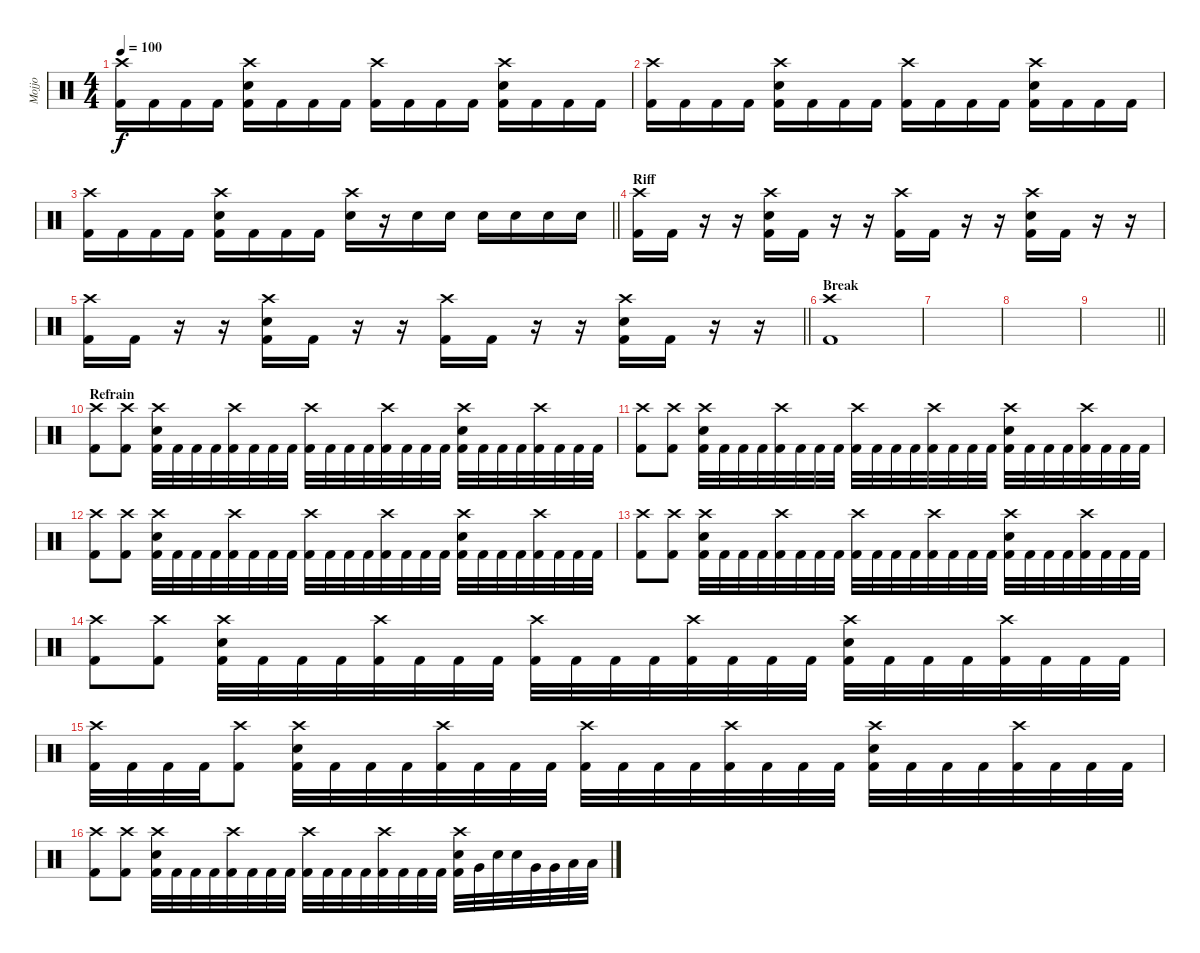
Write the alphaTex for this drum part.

\track ("Mojjo" "Mojjo") {instrument percussion}
\staff {score}
\articulation defaults
\ts (4 4)
\tempo 100
\clef neutral
\ks c
("Crash high (hit)" "Kick (hit) 2").16{dy f} "Kick (hit) 2".16 "Kick (hit) 2".16 "Kick (hit) 2".16 ("Crash high (hit)" "Electric Snare (hit)" "Kick (hit) 2").16 "Kick (hit) 2".16 "Kick (hit) 2".16 "Kick (hit) 2".16 ("Crash high (hit)" "Kick (hit) 2").16 "Kick (hit) 2".16 "Kick (hit) 2".16 "Kick (hit) 2".16 ("Crash high (hit)" "Electric Snare (hit)" "Kick (hit) 2").16 "Kick (hit) 2".16 "Kick (hit) 2".16 "Kick (hit) 2".16 |
("Crash high (hit)" "Kick (hit) 2").16 "Kick (hit) 2".16 "Kick (hit) 2".16 "Kick (hit) 2".16 ("Crash high (hit)" "Electric Snare (hit)" "Kick (hit) 2").16 "Kick (hit) 2".16 "Kick (hit) 2".16 "Kick (hit) 2".16 ("Crash high (hit)" "Kick (hit) 2").16 "Kick (hit) 2".16 "Kick (hit) 2".16 "Kick (hit) 2".16 ("Crash high (hit)" "Electric Snare (hit)" "Kick (hit) 2").16 "Kick (hit) 2".16 "Kick (hit) 2".16 "Kick (hit) 2".16 |
\barLineRight lightlight
("Crash high (hit)" "Kick (hit) 2").16 "Kick (hit) 2".16 "Kick (hit) 2".16 "Kick (hit) 2".16 ("Crash high (hit)" "Electric Snare (hit)" "Kick (hit) 2").16 "Kick (hit) 2".16 "Kick (hit) 2".16 "Kick (hit) 2".16 ("Crash high (hit)" "Electric Snare (hit)").16 r.16 "Electric Snare (hit)".16 "Electric Snare (hit)".16 "Electric Snare (hit)".16 "Electric Snare (hit)".16 "Electric Snare (hit)".16 "Electric Snare (hit)".16 |
\section ("" "Riff")
("Crash high (hit)" "Kick (hit) 2").16 "Kick (hit) 2".16 r.16 r.16 ("Crash high (hit)" "Electric Snare (hit)" "Kick (hit) 2").16 "Kick (hit) 2".16 r.16 r.16 ("Crash high (hit)" "Kick (hit) 2").16 "Kick (hit) 2".16 r.16 r.16 ("Crash high (hit)" "Electric Snare (hit)" "Kick (hit) 2").16 "Kick (hit) 2".16 r.16 r.16 |
\barLineRight lightlight
("Crash high (hit)" "Kick (hit) 2").16 "Kick (hit) 2".16 r.16 r.16 ("Crash high (hit)" "Electric Snare (hit)" "Kick (hit) 2").16 "Kick (hit) 2".16 r.16 r.16 ("Crash high (hit)" "Kick (hit) 2").16 "Kick (hit) 2".16 r.16 r.16 ("Crash high (hit)" "Electric Snare (hit)" "Kick (hit) 2").16 "Kick (hit) 2".16 r.16 r.16 |
\section ("" "Break")
("Crash high (hit)" "Kick (hit) 2").1 |
|
|
\barLineRight lightlight
|
\section ("" "Refrain")
("Crash high (hit)" "Kick (hit) 2").8 ("Crash high (hit)" "Kick (hit) 2").8 ("Crash high (hit)" "Electric Snare (hit)" "Kick (hit) 2").32 "Kick (hit) 2".32 "Kick (hit) 2".32 "Kick (hit) 2".32 ("Crash high (hit)" "Kick (hit) 2").32 "Kick (hit) 2".32 "Kick (hit) 2".32 "Kick (hit) 2".32 ("Crash high (hit)" "Kick (hit) 2").32 "Kick (hit) 2".32 "Kick (hit) 2".32 "Kick (hit) 2".32 ("Crash high (hit)" "Kick (hit) 2").32 "Kick (hit) 2".32 "Kick (hit) 2".32 "Kick (hit) 2".32 ("Crash high (hit)" "Electric Snare (hit)" "Kick (hit) 2").32 "Kick (hit) 2".32 "Kick (hit) 2".32 "Kick (hit) 2".32 ("Crash high (hit)" "Kick (hit) 2").32 "Kick (hit) 2".32 "Kick (hit) 2".32 "Kick (hit) 2".32 |
("Crash high (hit)" "Kick (hit) 2").8 ("Crash high (hit)" "Kick (hit) 2").8 ("Crash high (hit)" "Electric Snare (hit)" "Kick (hit) 2").32 "Kick (hit) 2".32 "Kick (hit) 2".32 "Kick (hit) 2".32 ("Crash high (hit)" "Kick (hit) 2").32 "Kick (hit) 2".32 "Kick (hit) 2".32 "Kick (hit) 2".32 ("Crash high (hit)" "Kick (hit) 2").32 "Kick (hit) 2".32 "Kick (hit) 2".32 "Kick (hit) 2".32 ("Crash high (hit)" "Kick (hit) 2").32 "Kick (hit) 2".32 "Kick (hit) 2".32 "Kick (hit) 2".32 ("Crash high (hit)" "Electric Snare (hit)" "Kick (hit) 2").32 "Kick (hit) 2".32 "Kick (hit) 2".32 "Kick (hit) 2".32 ("Crash high (hit)" "Kick (hit) 2").32 "Kick (hit) 2".32 "Kick (hit) 2".32 "Kick (hit) 2".32 |
("Crash high (hit)" "Kick (hit) 2").8 ("Crash high (hit)" "Kick (hit) 2").8 ("Crash high (hit)" "Electric Snare (hit)" "Kick (hit) 2").32 "Kick (hit) 2".32 "Kick (hit) 2".32 "Kick (hit) 2".32 ("Crash high (hit)" "Kick (hit) 2").32 "Kick (hit) 2".32 "Kick (hit) 2".32 "Kick (hit) 2".32 ("Crash high (hit)" "Kick (hit) 2").32 "Kick (hit) 2".32 "Kick (hit) 2".32 "Kick (hit) 2".32 ("Crash high (hit)" "Kick (hit) 2").32 "Kick (hit) 2".32 "Kick (hit) 2".32 "Kick (hit) 2".32 ("Crash high (hit)" "Electric Snare (hit)" "Kick (hit) 2").32 "Kick (hit) 2".32 "Kick (hit) 2".32 "Kick (hit) 2".32 ("Crash high (hit)" "Kick (hit) 2").32 "Kick (hit) 2".32 "Kick (hit) 2".32 "Kick (hit) 2".32 |
("Crash high (hit)" "Kick (hit) 2").8 ("Crash high (hit)" "Kick (hit) 2").8 ("Crash high (hit)" "Electric Snare (hit)" "Kick (hit) 2").32 "Kick (hit) 2".32 "Kick (hit) 2".32 "Kick (hit) 2".32 ("Crash high (hit)" "Kick (hit) 2").32 "Kick (hit) 2".32 "Kick (hit) 2".32 "Kick (hit) 2".32 ("Crash high (hit)" "Kick (hit) 2").32 "Kick (hit) 2".32 "Kick (hit) 2".32 "Kick (hit) 2".32 ("Crash high (hit)" "Kick (hit) 2").32 "Kick (hit) 2".32 "Kick (hit) 2".32 "Kick (hit) 2".32 ("Crash high (hit)" "Electric Snare (hit)" "Kick (hit) 2").32 "Kick (hit) 2".32 "Kick (hit) 2".32 "Kick (hit) 2".32 ("Crash high (hit)" "Kick (hit) 2").32 "Kick (hit) 2".32 "Kick (hit) 2".32 "Kick (hit) 2".32 |
("Crash high (hit)" "Kick (hit) 2").8 ("Crash high (hit)" "Kick (hit) 2").8 ("Crash high (hit)" "Electric Snare (hit)" "Kick (hit) 2").32 "Kick (hit) 2".32 "Kick (hit) 2".32 "Kick (hit) 2".32 ("Crash high (hit)" "Kick (hit) 2").32 "Kick (hit) 2".32 "Kick (hit) 2".32 "Kick (hit) 2".32 ("Crash high (hit)" "Kick (hit) 2").32 "Kick (hit) 2".32 "Kick (hit) 2".32 "Kick (hit) 2".32 ("Crash high (hit)" "Kick (hit) 2").32 "Kick (hit) 2".32 "Kick (hit) 2".32 "Kick (hit) 2".32 ("Crash high (hit)" "Electric Snare (hit)" "Kick (hit) 2").32 "Kick (hit) 2".32 "Kick (hit) 2".32 "Kick (hit) 2".32 ("Crash high (hit)" "Kick (hit) 2").32 "Kick (hit) 2".32 "Kick (hit) 2".32 "Kick (hit) 2".32 |
("Crash high (hit)" "Kick (hit) 2").32 "Kick (hit) 2".32 "Kick (hit) 2".32 "Kick (hit) 2".32 ("Crash high (hit)" "Kick (hit) 2").8 ("Crash high (hit)" "Electric Snare (hit)" "Kick (hit) 2").32 "Kick (hit) 2".32 "Kick (hit) 2".32 "Kick (hit) 2".32 ("Crash high (hit)" "Kick (hit) 2").32 "Kick (hit) 2".32 "Kick (hit) 2".32 "Kick (hit) 2".32 ("Crash high (hit)" "Kick (hit) 2").32 "Kick (hit) 2".32 "Kick (hit) 2".32 "Kick (hit) 2".32 ("Crash high (hit)" "Kick (hit) 2").32 "Kick (hit) 2".32 "Kick (hit) 2".32 "Kick (hit) 2".32 ("Crash high (hit)" "Electric Snare (hit)" "Kick (hit) 2").32 "Kick (hit) 2".32 "Kick (hit) 2".32 "Kick (hit) 2".32 ("Crash high (hit)" "Kick (hit) 2").32 "Kick (hit) 2".32 "Kick (hit) 2".32 "Kick (hit) 2".32 |
("Crash high (hit)" "Kick (hit) 2").8 ("Crash high (hit)" "Kick (hit) 2").8 ("Crash high (hit)" "Electric Snare (hit)" "Kick (hit) 2").32 "Kick (hit) 2".32 "Kick (hit) 2".32 "Kick (hit) 2".32 ("Crash high (hit)" "Kick (hit) 2").32 "Kick (hit) 2".32 "Kick (hit) 2".32 "Kick (hit) 2".32 ("Crash high (hit)" "Kick (hit) 2").32 "Kick (hit) 2".32 "Kick (hit) 2".32 "Kick (hit) 2".32 ("Crash high (hit)" "Kick (hit) 2").32 "Kick (hit) 2".32 "Kick (hit) 2".32 "Kick (hit) 2".32 ("Crash high (hit)" "Electric Snare (hit)" "Kick (hit) 2").32 "Very Low Tom (hit)".32 "Electric Snare (hit)".32 "Electric Snare (hit)".32 "Very Low Tom (hit)".32 "Very Low Tom (hit)".32 "Low Floor Tom (hit)".32 "Low Floor Tom (hit)".32
